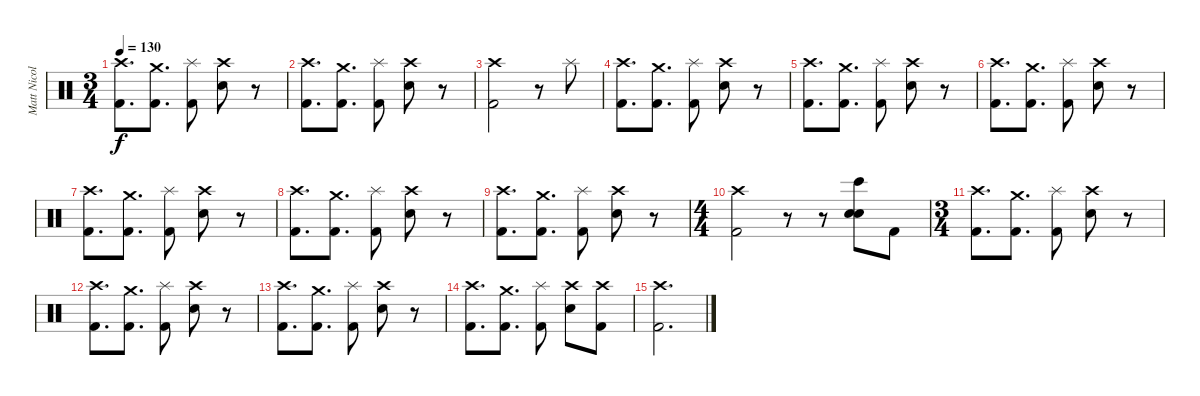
\track ("Matt Nicols" "Matt Nicol") {instrument percussion}
\staff {score}
\articulation defaults
\ts (3 4)
\tempo 130
\clef neutral
\ks c
("Crash high (hit)" "Kick (hit) 2").8{d dy f} ("Crash medium (hit)" "Kick (hit) 2").8{d} ("Splash (hit)" "Kick (hit) 2").8 ("Crash high (hit)" "Snare (hit) 2").8 r.8 |
("Crash high (hit)" "Kick (hit) 2").8{d} ("Crash medium (hit)" "Kick (hit) 2").8{d} ("Splash (hit)" "Kick (hit) 2").8 ("Crash high (hit)" "Snare (hit) 2").8 r.8 |
("Crash high (hit)" "Kick (hit) 2").2 r.8 "Splash (hit)".8 |
("Crash high (hit)" "Kick (hit) 2").8{d} ("Crash medium (hit)" "Kick (hit) 2").8{d} ("Splash (hit)" "Kick (hit) 2").8 ("Crash high (hit)" "Snare (hit) 2").8 r.8 |
("Crash high (hit)" "Kick (hit) 2").8{d} ("Crash medium (hit)" "Kick (hit) 2").8{d} ("Splash (hit)" "Kick (hit) 2").8 ("Crash high (hit)" "Snare (hit) 2").8 r.8 |
("Crash high (hit)" "Kick (hit) 2").8{d} ("Crash medium (hit)" "Kick (hit) 2").8{d} ("Splash (hit)" "Kick (hit) 2").8 ("Crash high (hit)" "Snare (hit) 2").8 r.8 |
("Crash high (hit)" "Kick (hit) 2").8{d} ("Crash medium (hit)" "Kick (hit) 2").8{d} ("Splash (hit)" "Kick (hit) 2").8 ("Crash high (hit)" "Snare (hit) 2").8 r.8 |
("Crash high (hit)" "Kick (hit) 2").8{d} ("Crash medium (hit)" "Kick (hit) 2").8{d} ("Splash (hit)" "Kick (hit) 2").8 ("Crash high (hit)" "Snare (hit) 2").8 r.8 |
("Crash high (hit)" "Kick (hit) 2").8{d} ("Crash medium (hit)" "Kick (hit) 2").8{d} ("Splash (hit)" "Kick (hit) 2").8 ("Crash high (hit)" "Snare (hit) 2").8 r.8 |
\ts (4 4)
("Crash high (hit)" "Kick (hit) 2").2 r.8 r.8 ("Hand Clap (hit)" "Snare (hit) 2" "Bongo High (hit)").8 "Kick (hit) 2".8 |
\ts (3 4)
("Crash high (hit)" "Kick (hit) 2").8{d} ("Crash medium (hit)" "Kick (hit) 2").8{d} ("Splash (hit)" "Kick (hit) 2").8 ("Crash high (hit)" "Snare (hit) 2").8 r.8 |
("Crash high (hit)" "Kick (hit) 2").8{d} ("Crash medium (hit)" "Kick (hit) 2").8{d} ("Splash (hit)" "Kick (hit) 2").8 ("Crash high (hit)" "Snare (hit) 2").8 r.8 |
("Crash high (hit)" "Kick (hit) 2").8{d} ("Crash medium (hit)" "Kick (hit) 2").8{d} ("Splash (hit)" "Kick (hit) 2").8 ("Crash high (hit)" "Snare (hit) 2").8 r.8 |
("Crash high (hit)" "Kick (hit) 2").8{d} ("Crash medium (hit)" "Kick (hit) 2").8{d} ("Splash (hit)" "Kick (hit) 2").8 ("Crash high (hit)" "Snare (hit) 2").8 ("Crash high (hit)" "Kick (hit) 2").8 |
("Kick (hit) 2" "Crash high (hit)").2{d}
